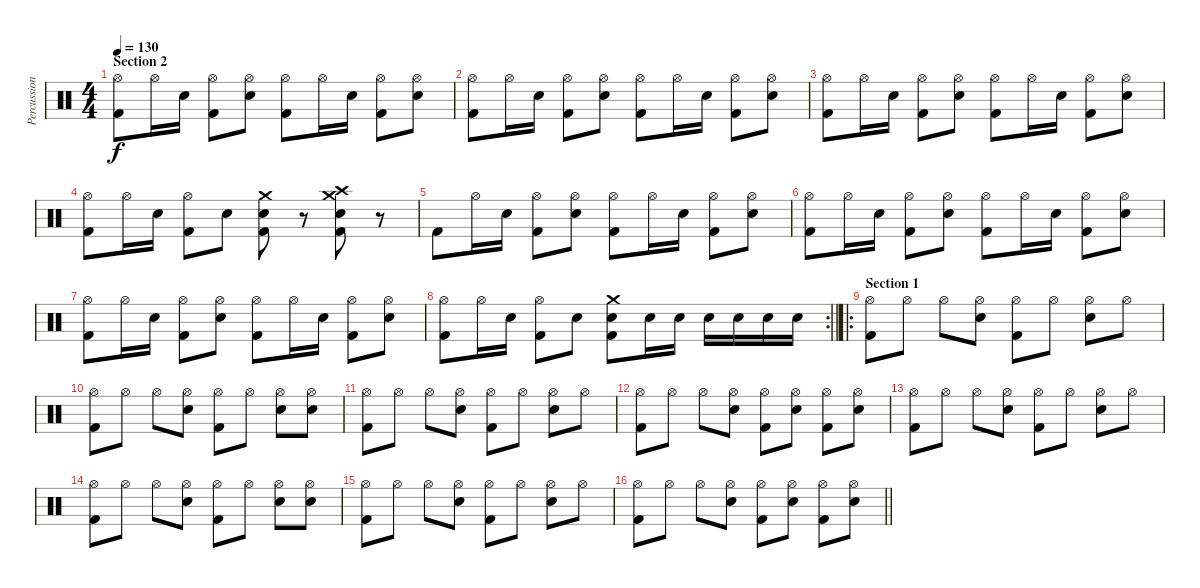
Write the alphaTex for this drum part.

\track ("Percussions" "Percussion") {instrument percussion}
\staff {score}
\articulation defaults
\ts (4 4)
\section ("" "Section 2")
\tempo 130
\clef neutral
\ks c
("Hi-Hat (open)" "Kick (hit) 2").8{dy f} "Hi-Hat (open)".16 "Electric Snare (hit)".16 ("Hi-Hat (open)" "Kick (hit) 2").8 ("Hi-Hat (open)" "Electric Snare (hit)").8 ("Hi-Hat (open)" "Kick (hit) 2").8 "Hi-Hat (open)".16 "Electric Snare (hit)".16 ("Hi-Hat (open)" "Kick (hit) 2").8 ("Hi-Hat (open)" "Electric Snare (hit)").8 |
("Hi-Hat (open)" "Kick (hit) 2").8 "Hi-Hat (open)".16 "Electric Snare (hit)".16 ("Hi-Hat (open)" "Kick (hit) 2").8 ("Hi-Hat (open)" "Electric Snare (hit)").8 ("Hi-Hat (open)" "Kick (hit) 2").8 "Hi-Hat (open)".16 "Electric Snare (hit)".16 ("Hi-Hat (open)" "Kick (hit) 2").8 ("Hi-Hat (open)" "Electric Snare (hit)").8 |
("Hi-Hat (open)" "Kick (hit) 2").8 "Hi-Hat (open)".16 "Electric Snare (hit)".16 ("Hi-Hat (open)" "Kick (hit) 2").8 ("Hi-Hat (open)" "Electric Snare (hit)").8 ("Hi-Hat (open)" "Kick (hit) 2").8 "Hi-Hat (open)".16 "Electric Snare (hit)".16 ("Hi-Hat (open)" "Kick (hit) 2").8 ("Hi-Hat (open)" "Electric Snare (hit)").8 |
("Hi-Hat (open)" "Kick (hit) 2").8 "Hi-Hat (open)".16 "Electric Snare (hit)".16 ("Hi-Hat (open)" "Kick (hit) 2").8 "Electric Snare (hit)".8 ("Crash medium (hit)" "Electric Snare (hit)" "Kick (hit) 2").8 r.8 ("Crash high (hit)" "Crash medium (hit)" "Electric Snare (hit)" "Kick (hit) 2").8 r.8 |
"Kick (hit) 2".8 "Hi-Hat (open)".16 "Electric Snare (hit)".16 ("Hi-Hat (open)" "Kick (hit) 2").8 ("Hi-Hat (open)" "Electric Snare (hit)").8 ("Hi-Hat (open)" "Kick (hit) 2").8 "Hi-Hat (open)".16 "Electric Snare (hit)".16 ("Hi-Hat (open)" "Kick (hit) 2").8 ("Hi-Hat (open)" "Electric Snare (hit)").8 |
("Hi-Hat (open)" "Kick (hit) 2").8 "Hi-Hat (open)".16 "Electric Snare (hit)".16 ("Hi-Hat (open)" "Kick (hit) 2").8 ("Hi-Hat (open)" "Electric Snare (hit)").8 ("Hi-Hat (open)" "Kick (hit) 2").8 "Hi-Hat (open)".16 "Electric Snare (hit)".16 ("Hi-Hat (open)" "Kick (hit) 2").8 ("Hi-Hat (open)" "Electric Snare (hit)").8 |
("Hi-Hat (open)" "Kick (hit) 2").8 "Hi-Hat (open)".16 "Electric Snare (hit)".16 ("Hi-Hat (open)" "Kick (hit) 2").8 ("Hi-Hat (open)" "Electric Snare (hit)").8 ("Hi-Hat (open)" "Kick (hit) 2").8 "Hi-Hat (open)".16 "Electric Snare (hit)".16 ("Hi-Hat (open)" "Kick (hit) 2").8 ("Hi-Hat (open)" "Electric Snare (hit)").8 |
\rc 2
\barLineRight lightlight
("Hi-Hat (open)" "Kick (hit) 2").8 "Hi-Hat (open)".16 "Electric Snare (hit)".16 ("Hi-Hat (open)" "Kick (hit) 2").8 "Electric Snare (hit)".8 ("Crash medium (hit)" "Electric Snare (hit)" "Kick (hit) 2").8 "Electric Snare (hit)".16 "Electric Snare (hit)".16 "Electric Snare (hit)".16 "Electric Snare (hit)".16 "Electric Snare (hit)".16 "Electric Snare (hit)".16 |
\ro
\section ("" "Section 1")
("Hi-Hat (open)" "Kick (hit) 2").8 "Hi-Hat (open)".8 "Hi-Hat (open)".8 ("Hi-Hat (open)" "Electric Snare (hit)").8 ("Hi-Hat (open)" "Kick (hit) 2").8 "Hi-Hat (open)".8 ("Hi-Hat (open)" "Electric Snare (hit)").8 "Hi-Hat (open)".8 |
("Hi-Hat (open)" "Kick (hit) 2").8 "Hi-Hat (open)".8 "Hi-Hat (open)".8 ("Hi-Hat (open)" "Electric Snare (hit)").8 ("Hi-Hat (open)" "Kick (hit) 2").8 "Hi-Hat (open)".8 ("Hi-Hat (open)" "Electric Snare (hit)").8 ("Hi-Hat (open)" "Electric Snare (hit)").8 |
("Hi-Hat (open)" "Kick (hit) 2").8 "Hi-Hat (open)".8 "Hi-Hat (open)".8 ("Hi-Hat (open)" "Electric Snare (hit)").8 ("Hi-Hat (open)" "Kick (hit) 2").8 "Hi-Hat (open)".8 ("Hi-Hat (open)" "Electric Snare (hit)").8 "Hi-Hat (open)".8 |
("Hi-Hat (open)" "Kick (hit) 2").8 "Hi-Hat (open)".8 "Hi-Hat (open)".8 ("Hi-Hat (open)" "Electric Snare (hit)").8 ("Hi-Hat (open)" "Kick (hit) 2").8 ("Hi-Hat (open)" "Electric Snare (hit)").8 ("Hi-Hat (open)" "Kick (hit) 2").8 ("Hi-Hat (open)" "Electric Snare (hit)").8 |
("Hi-Hat (open)" "Kick (hit) 2").8 "Hi-Hat (open)".8 "Hi-Hat (open)".8 ("Hi-Hat (open)" "Electric Snare (hit)").8 ("Hi-Hat (open)" "Kick (hit) 2").8 "Hi-Hat (open)".8 ("Hi-Hat (open)" "Electric Snare (hit)").8 "Hi-Hat (open)".8 |
("Hi-Hat (open)" "Kick (hit) 2").8 "Hi-Hat (open)".8 "Hi-Hat (open)".8 ("Hi-Hat (open)" "Electric Snare (hit)").8 ("Hi-Hat (open)" "Kick (hit) 2").8 "Hi-Hat (open)".8 ("Hi-Hat (open)" "Electric Snare (hit)").8 ("Hi-Hat (open)" "Electric Snare (hit)").8 |
("Hi-Hat (open)" "Kick (hit) 2").8 "Hi-Hat (open)".8 "Hi-Hat (open)".8 ("Hi-Hat (open)" "Electric Snare (hit)").8 ("Hi-Hat (open)" "Kick (hit) 2").8 "Hi-Hat (open)".8 ("Hi-Hat (open)" "Electric Snare (hit)").8 "Hi-Hat (open)".8 |
\barLineRight lightlight
("Hi-Hat (open)" "Kick (hit) 2").8 "Hi-Hat (open)".8 "Hi-Hat (open)".8 ("Hi-Hat (open)" "Electric Snare (hit)").8 ("Hi-Hat (open)" "Kick (hit) 2").8 ("Hi-Hat (open)" "Electric Snare (hit)").8 ("Hi-Hat (open)" "Kick (hit) 2").8 ("Hi-Hat (open)" "Electric Snare (hit)").8
